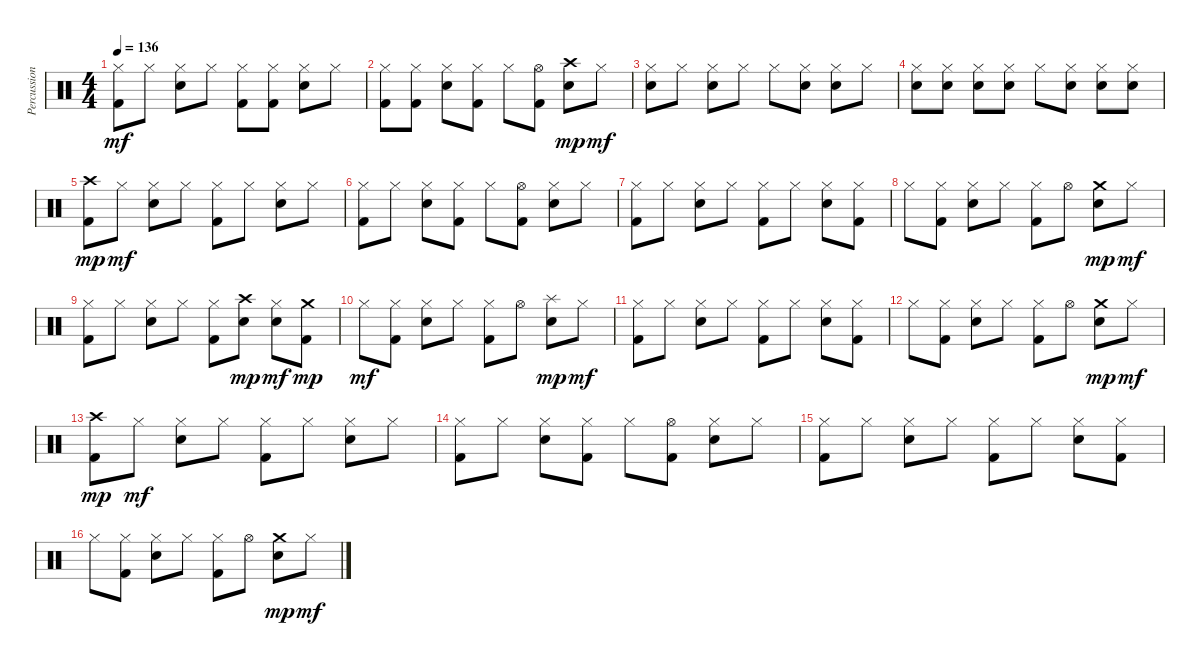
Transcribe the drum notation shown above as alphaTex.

\track ("Percussions" "Percussion") {instrument percussion}
\staff {score}
\articulation defaults
\ts (4 4)
\tempo 136
\clef neutral
\ks c
("Hi-Hat (closed)" "Kick (hit) 2").8{dy mf} "Hi-Hat (closed)".8 ("Hi-Hat (closed)" "Electric Snare (hit)").8 "Hi-Hat (closed)".8 ("Hi-Hat (closed)" "Kick (hit) 2").8 ("Hi-Hat (closed)" "Kick (hit) 2").8 ("Hi-Hat (closed)" "Electric Snare (hit)").8 "Hi-Hat (closed)".8 |
("Hi-Hat (closed)" "Kick (hit) 2").8 ("Hi-Hat (closed)" "Kick (hit) 2").8 ("Hi-Hat (closed)" "Electric Snare (hit)").8 ("Hi-Hat (closed)" "Kick (hit) 2").8 "Hi-Hat (closed)".8 ("Hi-Hat (open)" "Kick (hit) 2").8 ("Crash high (hit)" "Electric Snare (hit)").8{dy mp} "Hi-Hat (closed)".8{dy mf} |
("Hi-Hat (closed)" "Electric Snare (hit)").8 "Hi-Hat (closed)".8 ("Hi-Hat (closed)" "Electric Snare (hit)").8 "Hi-Hat (closed)".8 "Hi-Hat (closed)".8 ("Hi-Hat (closed)" "Electric Snare (hit)").8 ("Hi-Hat (closed)" "Electric Snare (hit)").8 "Hi-Hat (closed)".8 |
("Hi-Hat (closed)" "Electric Snare (hit)").8 ("Hi-Hat (closed)" "Electric Snare (hit)").8 ("Hi-Hat (closed)" "Electric Snare (hit)").8 ("Hi-Hat (closed)" "Electric Snare (hit)").8 "Hi-Hat (closed)".8 ("Hi-Hat (closed)" "Electric Snare (hit)").8 ("Hi-Hat (closed)" "Electric Snare (hit)").8 ("Hi-Hat (closed)" "Electric Snare (hit)").8 |
("Crash high (hit)" "Kick (hit) 2").8{dy mp} "Hi-Hat (closed)".8{dy mf} ("Hi-Hat (closed)" "Electric Snare (hit)").8 "Hi-Hat (closed)".8 ("Hi-Hat (closed)" "Kick (hit) 2").8 "Hi-Hat (closed)".8 ("Hi-Hat (closed)" "Electric Snare (hit)").8 "Hi-Hat (closed)".8 |
("Hi-Hat (closed)" "Kick (hit) 2").8 "Hi-Hat (closed)".8 ("Hi-Hat (closed)" "Electric Snare (hit)").8 ("Hi-Hat (closed)" "Kick (hit) 2").8 "Hi-Hat (closed)".8 ("Hi-Hat (open)" "Kick (hit) 2").8 ("Hi-Hat (closed)" "Electric Snare (hit)").8 "Hi-Hat (closed)".8 |
("Hi-Hat (closed)" "Kick (hit) 2").8 "Hi-Hat (closed)".8 ("Hi-Hat (closed)" "Electric Snare (hit)").8 "Hi-Hat (closed)".8 ("Hi-Hat (closed)" "Kick (hit) 2").8 "Hi-Hat (closed)".8 ("Hi-Hat (closed)" "Electric Snare (hit)").8 ("Hi-Hat (closed)" "Kick (hit) 2").8 |
"Hi-Hat (closed)".8 ("Hi-Hat (closed)" "Kick (hit) 2").8 ("Hi-Hat (closed)" "Electric Snare (hit)").8 "Hi-Hat (closed)".8 ("Hi-Hat (closed)" "Kick (hit) 2").8 "Hi-Hat (open)".8 ("Crash medium (hit)" "Electric Snare (hit)").8{dy mp} "Hi-Hat (closed)".8{dy mf} |
("Hi-Hat (closed)" "Kick (hit) 2").8 "Hi-Hat (closed)".8 ("Hi-Hat (closed)" "Electric Snare (hit)").8 "Hi-Hat (closed)".8 ("Hi-Hat (closed)" "Kick (hit) 2").8 ("Crash high (hit)" "Electric Snare (hit)").8{dy mp} ("Hi-Hat (closed)" "Electric Snare (hit)").8{dy mf} ("Crash medium (hit)" "Kick (hit) 2").8{dy mp} |
"Hi-Hat (closed)".8{dy mf} ("Hi-Hat (closed)" "Kick (hit) 2").8 ("Hi-Hat (closed)" "Electric Snare (hit)").8 "Hi-Hat (closed)".8 ("Hi-Hat (closed)" "Kick (hit) 2").8 "Hi-Hat (open)".8 ("Splash (hit)" "Electric Snare (hit)").8{dy mp} "Hi-Hat (closed)".8{dy mf} |
("Hi-Hat (closed)" "Kick (hit) 2").8 "Hi-Hat (closed)".8 ("Hi-Hat (closed)" "Electric Snare (hit)").8 "Hi-Hat (closed)".8 ("Hi-Hat (closed)" "Kick (hit) 2").8 "Hi-Hat (closed)".8 ("Hi-Hat (closed)" "Electric Snare (hit)").8 ("Hi-Hat (closed)" "Kick (hit) 2").8 |
"Hi-Hat (closed)".8 ("Hi-Hat (closed)" "Kick (hit) 2").8 ("Hi-Hat (closed)" "Electric Snare (hit)").8 "Hi-Hat (closed)".8 ("Hi-Hat (closed)" "Kick (hit) 2").8 "Hi-Hat (open)".8 ("Crash medium (hit)" "Electric Snare (hit)").8{dy mp} "Hi-Hat (closed)".8{dy mf} |
("Crash high (hit)" "Kick (hit) 2").8{dy mp} "Hi-Hat (closed)".8{dy mf} ("Hi-Hat (closed)" "Electric Snare (hit)").8 "Hi-Hat (closed)".8 ("Hi-Hat (closed)" "Kick (hit) 2").8 "Hi-Hat (closed)".8 ("Hi-Hat (closed)" "Electric Snare (hit)").8 "Hi-Hat (closed)".8 |
("Hi-Hat (closed)" "Kick (hit) 2").8 "Hi-Hat (closed)".8 ("Hi-Hat (closed)" "Electric Snare (hit)").8 ("Hi-Hat (closed)" "Kick (hit) 2").8 "Hi-Hat (closed)".8 ("Hi-Hat (open)" "Kick (hit) 2").8 ("Hi-Hat (closed)" "Electric Snare (hit)").8 "Hi-Hat (closed)".8 |
("Hi-Hat (closed)" "Kick (hit) 2").8 "Hi-Hat (closed)".8 ("Hi-Hat (closed)" "Electric Snare (hit)").8 "Hi-Hat (closed)".8 ("Hi-Hat (closed)" "Kick (hit) 2").8 "Hi-Hat (closed)".8 ("Hi-Hat (closed)" "Electric Snare (hit)").8 ("Hi-Hat (closed)" "Kick (hit) 2").8 |
"Hi-Hat (closed)".8 ("Hi-Hat (closed)" "Kick (hit) 2").8 ("Hi-Hat (closed)" "Electric Snare (hit)").8 "Hi-Hat (closed)".8 ("Hi-Hat (closed)" "Kick (hit) 2").8 "Hi-Hat (open)".8 ("Crash medium (hit)" "Electric Snare (hit)").8{dy mp} "Hi-Hat (closed)".8{dy mf}
